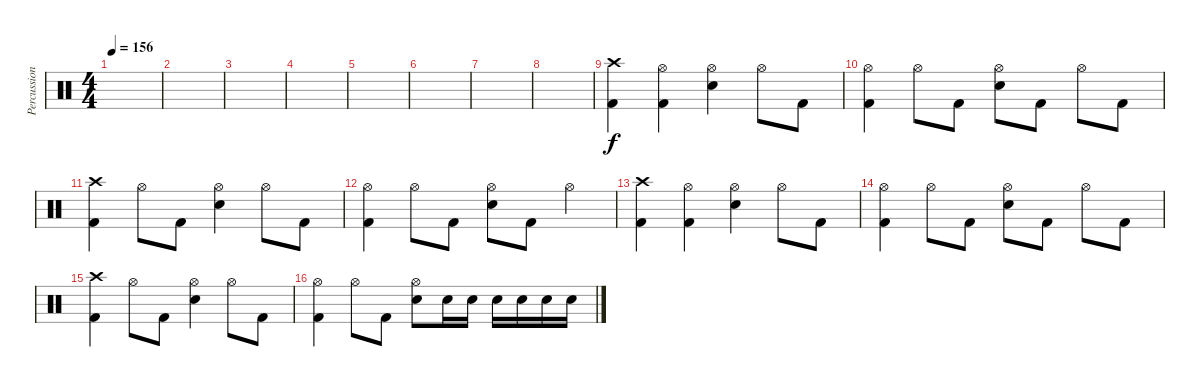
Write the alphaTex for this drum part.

\track ("Percussions" "Percussion") {instrument percussion}
\staff {score}
\articulation defaults
\ts (4 4)
\tempo 156
\clef neutral
\ks c
|
|
|
|
|
|
|
|
("Crash high (hit)" "Kick (hit) 2").4 ("Hi-Hat (open)" "Kick (hit) 2").4 ("Hi-Hat (open)" "Electric Snare (hit)").4 "Hi-Hat (open)".8 "Kick (hit) 2".8 |
("Hi-Hat (open)" "Kick (hit) 2").4 "Hi-Hat (open)".8 "Kick (hit) 2".8 ("Hi-Hat (open)" "Electric Snare (hit)").8 "Kick (hit) 2".8 "Hi-Hat (open)".8 "Kick (hit) 2".8 |
("Crash high (hit)" "Kick (hit) 2").4 "Hi-Hat (open)".8 "Kick (hit) 2".8 ("Hi-Hat (open)" "Electric Snare (hit)").4 "Hi-Hat (open)".8 "Kick (hit) 2".8 |
("Hi-Hat (open)" "Kick (hit) 2").4 "Hi-Hat (open)".8 "Kick (hit) 2".8 ("Hi-Hat (open)" "Electric Snare (hit)").8 "Kick (hit) 2".8 "Hi-Hat (open)".4 |
("Crash high (hit)" "Kick (hit) 2").4 ("Hi-Hat (open)" "Kick (hit) 2").4 ("Hi-Hat (open)" "Electric Snare (hit)").4 "Hi-Hat (open)".8 "Kick (hit) 2".8 |
("Hi-Hat (open)" "Kick (hit) 2").4 "Hi-Hat (open)".8 "Kick (hit) 2".8 ("Hi-Hat (open)" "Electric Snare (hit)").8 "Kick (hit) 2".8 "Hi-Hat (open)".8 "Kick (hit) 2".8 |
("Crash high (hit)" "Kick (hit) 2").4 "Hi-Hat (open)".8 "Kick (hit) 2".8 ("Hi-Hat (open)" "Electric Snare (hit)").4 "Hi-Hat (open)".8 "Kick (hit) 2".8 |
("Hi-Hat (open)" "Kick (hit) 2").4 "Hi-Hat (open)".8 "Kick (hit) 2".8 ("Hi-Hat (open)" "Electric Snare (hit)").8 "Electric Snare (hit)".16 "Electric Snare (hit)".16 "Electric Snare (hit)".16 "Electric Snare (hit)".16 "Electric Snare (hit)".16 "Electric Snare (hit)".16
